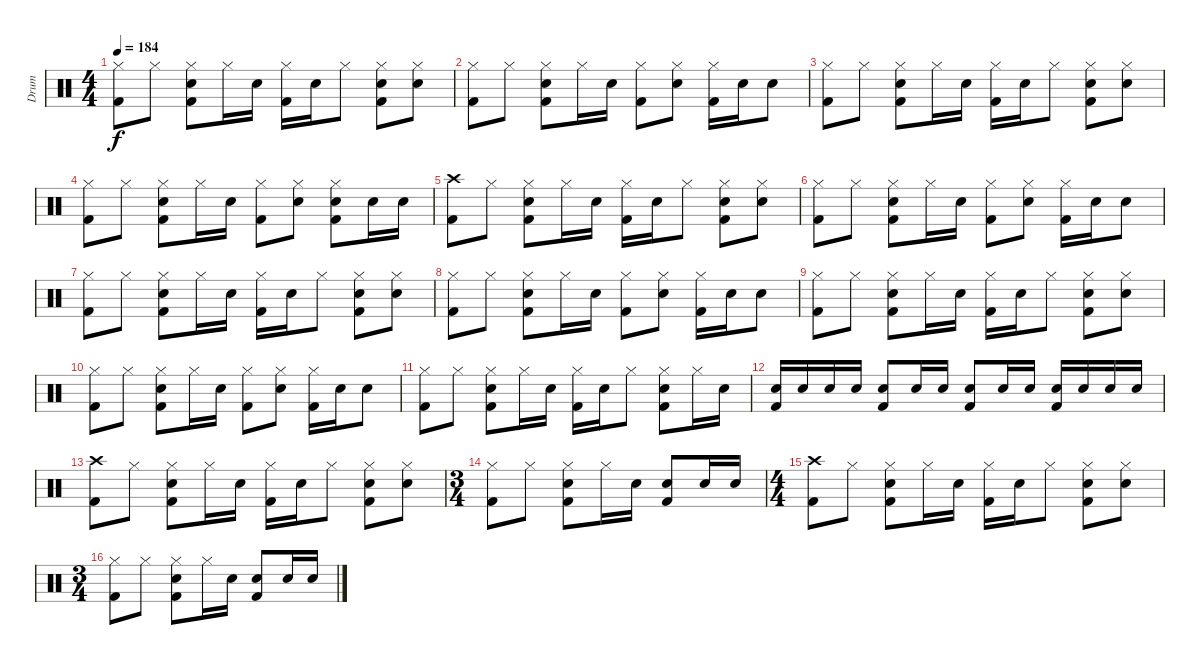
\track ("Drum" "Drum") {instrument percussion}
\staff {score}
\articulation defaults
\ts (4 4)
\tempo 184
\clef neutral
\ks c
("Hi-Hat (closed)" "Kick (hit) 2").8{dy f} "Hi-Hat (closed)".8 ("Hi-Hat (closed)" "Electric Snare (hit)" "Kick (hit) 2").8 "Hi-Hat (closed)".16 "Electric Snare (hit)".16 ("Hi-Hat (closed)" "Kick (hit) 2").16 "Electric Snare (hit)".16 "Hi-Hat (closed)".8 ("Hi-Hat (closed)" "Electric Snare (hit)" "Kick (hit) 2").8 ("Hi-Hat (closed)" "Electric Snare (hit)").8 |
("Hi-Hat (closed)" "Kick (hit) 2").8 "Hi-Hat (closed)".8 ("Hi-Hat (closed)" "Electric Snare (hit)" "Kick (hit) 2").8 "Hi-Hat (closed)".16 "Electric Snare (hit)".16 ("Hi-Hat (closed)" "Kick (hit) 2").8 ("Hi-Hat (closed)" "Electric Snare (hit)").8 ("Hi-Hat (closed)" "Kick (hit) 2").16 "Electric Snare (hit)".16 "Electric Snare (hit)".8 |
("Hi-Hat (closed)" "Kick (hit) 2").8 "Hi-Hat (closed)".8 ("Hi-Hat (closed)" "Electric Snare (hit)" "Kick (hit) 2").8 "Hi-Hat (closed)".16 "Electric Snare (hit)".16 ("Hi-Hat (closed)" "Kick (hit) 2").16 "Electric Snare (hit)".16 "Hi-Hat (closed)".8 ("Hi-Hat (closed)" "Electric Snare (hit)" "Kick (hit) 2").8 ("Hi-Hat (closed)" "Electric Snare (hit)").8 |
("Hi-Hat (closed)" "Kick (hit) 2").8 "Hi-Hat (closed)".8 ("Hi-Hat (closed)" "Electric Snare (hit)" "Kick (hit) 2").8 "Hi-Hat (closed)".16 "Electric Snare (hit)".16 ("Hi-Hat (closed)" "Kick (hit) 2").8 ("Hi-Hat (closed)" "Electric Snare (hit)").8 ("Hi-Hat (closed)" "Electric Snare (hit)" "Kick (hit) 2").8 "Electric Snare (hit)".16 "Electric Snare (hit)".16 |
("Crash high (hit)" "Kick (hit) 2").8 "Hi-Hat (closed)".8 ("Hi-Hat (closed)" "Electric Snare (hit)" "Kick (hit) 2").8 "Hi-Hat (closed)".16 "Electric Snare (hit)".16 ("Hi-Hat (closed)" "Kick (hit) 2").16 "Electric Snare (hit)".16 "Hi-Hat (closed)".8 ("Hi-Hat (closed)" "Electric Snare (hit)" "Kick (hit) 2").8 ("Hi-Hat (closed)" "Electric Snare (hit)").8 |
("Hi-Hat (closed)" "Kick (hit) 2").8 "Hi-Hat (closed)".8 ("Hi-Hat (closed)" "Electric Snare (hit)" "Kick (hit) 2").8 "Hi-Hat (closed)".16 "Electric Snare (hit)".16 ("Hi-Hat (closed)" "Kick (hit) 2").8 ("Hi-Hat (closed)" "Electric Snare (hit)").8 ("Hi-Hat (closed)" "Kick (hit) 2").16 "Electric Snare (hit)".16 "Electric Snare (hit)".8 |
("Hi-Hat (closed)" "Kick (hit) 2").8 "Hi-Hat (closed)".8 ("Hi-Hat (closed)" "Electric Snare (hit)" "Kick (hit) 2").8 "Hi-Hat (closed)".16 "Electric Snare (hit)".16 ("Hi-Hat (closed)" "Kick (hit) 2").16 "Electric Snare (hit)".16 "Hi-Hat (closed)".8 ("Hi-Hat (closed)" "Electric Snare (hit)" "Kick (hit) 2").8 ("Hi-Hat (closed)" "Electric Snare (hit)").8 |
("Hi-Hat (closed)" "Kick (hit) 2").8 "Hi-Hat (closed)".8 ("Hi-Hat (closed)" "Electric Snare (hit)" "Kick (hit) 2").8 "Hi-Hat (closed)".16 "Electric Snare (hit)".16 ("Hi-Hat (closed)" "Kick (hit) 2").8 ("Hi-Hat (closed)" "Electric Snare (hit)").8 ("Hi-Hat (closed)" "Kick (hit) 2").16 "Electric Snare (hit)".16 "Electric Snare (hit)".8 |
("Hi-Hat (closed)" "Kick (hit) 2").8 "Hi-Hat (closed)".8 ("Hi-Hat (closed)" "Electric Snare (hit)" "Kick (hit) 2").8 "Hi-Hat (closed)".16 "Electric Snare (hit)".16 ("Hi-Hat (closed)" "Kick (hit) 2").16 "Electric Snare (hit)".16 "Hi-Hat (closed)".8 ("Hi-Hat (closed)" "Electric Snare (hit)" "Kick (hit) 2").8 ("Hi-Hat (closed)" "Electric Snare (hit)").8 |
("Hi-Hat (closed)" "Kick (hit) 2").8 "Hi-Hat (closed)".8 ("Hi-Hat (closed)" "Electric Snare (hit)" "Kick (hit) 2").8 "Hi-Hat (closed)".16 "Electric Snare (hit)".16 ("Hi-Hat (closed)" "Kick (hit) 2").8 ("Hi-Hat (closed)" "Electric Snare (hit)").8 ("Hi-Hat (closed)" "Kick (hit) 2").16 "Electric Snare (hit)".16 "Electric Snare (hit)".8 |
("Hi-Hat (closed)" "Kick (hit) 2").8 "Hi-Hat (closed)".8 ("Hi-Hat (closed)" "Electric Snare (hit)" "Kick (hit) 2").8 "Hi-Hat (closed)".16 "Electric Snare (hit)".16 ("Hi-Hat (closed)" "Kick (hit) 2").16 "Electric Snare (hit)".16 "Hi-Hat (closed)".8 ("Hi-Hat (closed)" "Electric Snare (hit)" "Kick (hit) 2").8 "Hi-Hat (closed)".16 "Electric Snare (hit)".16 |
("Electric Snare (hit)" "Kick (hit) 2").16 "Electric Snare (hit)".16 "Electric Snare (hit)".16 "Electric Snare (hit)".16 ("Electric Snare (hit)" "Kick (hit) 2").8 "Electric Snare (hit)".16 "Electric Snare (hit)".16 ("Electric Snare (hit)" "Kick (hit) 2").8 "Electric Snare (hit)".16 "Electric Snare (hit)".16 ("Electric Snare (hit)" "Kick (hit) 2").16 "Electric Snare (hit)".16 "Electric Snare (hit)".16 "Electric Snare (hit)".16 |
("Crash high (hit)" "Kick (hit) 2").8 "Hi-Hat (closed)".8 ("Hi-Hat (closed)" "Electric Snare (hit)" "Kick (hit) 2").8 "Hi-Hat (closed)".16 "Electric Snare (hit)".16 ("Hi-Hat (closed)" "Kick (hit) 2").16 "Electric Snare (hit)".16 "Hi-Hat (closed)".8 ("Hi-Hat (closed)" "Electric Snare (hit)" "Kick (hit) 2").8 ("Hi-Hat (closed)" "Electric Snare (hit)").8 |
\ts (3 4)
("Hi-Hat (closed)" "Kick (hit) 2").8 "Hi-Hat (closed)".8 ("Hi-Hat (closed)" "Electric Snare (hit)" "Kick (hit) 2").8 "Hi-Hat (closed)".16 "Electric Snare (hit)".16 ("Electric Snare (hit)" "Kick (hit) 2").8 "Electric Snare (hit)".16 "Electric Snare (hit)".16 |
\ts (4 4)
("Crash high (hit)" "Kick (hit) 2").8 "Hi-Hat (closed)".8 ("Hi-Hat (closed)" "Electric Snare (hit)" "Kick (hit) 2").8 "Hi-Hat (closed)".16 "Electric Snare (hit)".16 ("Hi-Hat (closed)" "Kick (hit) 2").16 "Electric Snare (hit)".16 "Hi-Hat (closed)".8 ("Hi-Hat (closed)" "Electric Snare (hit)" "Kick (hit) 2").8 ("Hi-Hat (closed)" "Electric Snare (hit)").8 |
\ts (3 4)
("Hi-Hat (closed)" "Kick (hit) 2").8 "Hi-Hat (closed)".8 ("Hi-Hat (closed)" "Electric Snare (hit)" "Kick (hit) 2").8 "Hi-Hat (closed)".16 "Electric Snare (hit)".16 ("Electric Snare (hit)" "Kick (hit) 2").8 "Electric Snare (hit)".16 "Electric Snare (hit)".16
